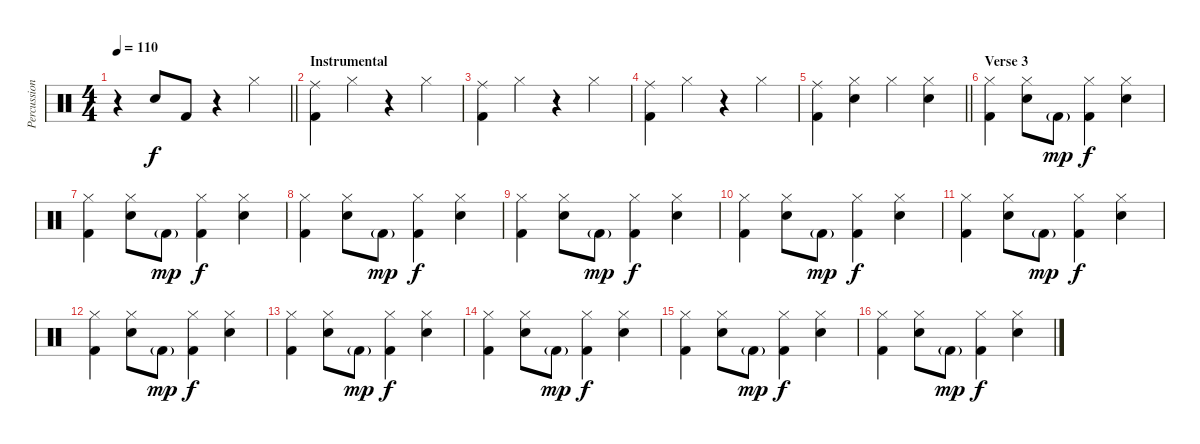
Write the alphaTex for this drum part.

\track ("Percussion" "Percussion") {instrument percussion}
\staff {score}
\articulation defaults
\ts (4 4)
\tempo 110
\clef neutral
\barLineRight lightlight
\ks c
r.4{dy f} "Snare (hit) 2".8 "Kick (hit) 2".8 r.4 "Hi-Hat (closed)".4 |
\section ("" "Instrumental")
("Ride (middle)" "Kick (hit) 2").4 "Hi-Hat (closed)".4 r.4 "Hi-Hat (closed)".4 |
("Ride (middle)" "Kick (hit) 2").4 "Hi-Hat (closed)".4 r.4 "Hi-Hat (closed)".4 |
("Ride (middle)" "Kick (hit) 2").4 "Hi-Hat (closed)".4 r.4 "Hi-Hat (closed)".4 |
\barLineRight lightlight
("Ride (middle)" "Kick (hit) 2").4 ("Hi-Hat (closed)" "Snare (hit) 2").4 "Hi-Hat (closed)".4 ("Hi-Hat (closed)" "Snare (hit) 2").4 |
\section ("" "Verse 3")
("Hi-Hat (closed)" "Kick (hit) 2").4 ("Hi-Hat (closed)" "Snare (hit) 2").8 "Kick (hit) 2"{g}.8{dy mp} ("Hi-Hat (closed)" "Kick (hit) 2").4{dy f} ("Hi-Hat (closed)" "Snare (hit) 2").4 |
("Hi-Hat (closed)" "Kick (hit) 2").4 ("Hi-Hat (closed)" "Snare (hit) 2").8 "Kick (hit) 2"{g}.8{dy mp} ("Hi-Hat (closed)" "Kick (hit) 2").4{dy f} ("Hi-Hat (closed)" "Snare (hit) 2").4 |
("Hi-Hat (closed)" "Kick (hit) 2").4 ("Hi-Hat (closed)" "Snare (hit) 2").8 "Kick (hit) 2"{g}.8{dy mp} ("Hi-Hat (closed)" "Kick (hit) 2").4{dy f} ("Hi-Hat (closed)" "Snare (hit) 2").4 |
("Hi-Hat (closed)" "Kick (hit) 2").4 ("Hi-Hat (closed)" "Snare (hit) 2").8 "Kick (hit) 2"{g}.8{dy mp} ("Hi-Hat (closed)" "Kick (hit) 2").4{dy f} ("Hi-Hat (closed)" "Snare (hit) 2").4 |
("Hi-Hat (closed)" "Kick (hit) 2").4 ("Hi-Hat (closed)" "Snare (hit) 2").8 "Kick (hit) 2"{g}.8{dy mp} ("Hi-Hat (closed)" "Kick (hit) 2").4{dy f} ("Hi-Hat (closed)" "Snare (hit) 2").4 |
("Hi-Hat (closed)" "Kick (hit) 2").4 ("Hi-Hat (closed)" "Snare (hit) 2").8 "Kick (hit) 2"{g}.8{dy mp} ("Hi-Hat (closed)" "Kick (hit) 2").4{dy f} ("Hi-Hat (closed)" "Snare (hit) 2").4 |
("Hi-Hat (closed)" "Kick (hit) 2").4 ("Hi-Hat (closed)" "Snare (hit) 2").8 "Kick (hit) 2"{g}.8{dy mp} ("Hi-Hat (closed)" "Kick (hit) 2").4{dy f} ("Hi-Hat (closed)" "Snare (hit) 2").4 |
("Hi-Hat (closed)" "Kick (hit) 2").4 ("Hi-Hat (closed)" "Snare (hit) 2").8 "Kick (hit) 2"{g}.8{dy mp} ("Hi-Hat (closed)" "Kick (hit) 2").4{dy f} ("Hi-Hat (closed)" "Snare (hit) 2").4 |
("Hi-Hat (closed)" "Kick (hit) 2").4 ("Hi-Hat (closed)" "Snare (hit) 2").8 "Kick (hit) 2"{g}.8{dy mp} ("Hi-Hat (closed)" "Kick (hit) 2").4{dy f} ("Hi-Hat (closed)" "Snare (hit) 2").4 |
("Hi-Hat (closed)" "Kick (hit) 2").4 ("Hi-Hat (closed)" "Snare (hit) 2").8 "Kick (hit) 2"{g}.8{dy mp} ("Hi-Hat (closed)" "Kick (hit) 2").4{dy f} ("Hi-Hat (closed)" "Snare (hit) 2").4 |
("Hi-Hat (closed)" "Kick (hit) 2").4 ("Hi-Hat (closed)" "Snare (hit) 2").8 "Kick (hit) 2"{g}.8{dy mp} ("Hi-Hat (closed)" "Kick (hit) 2").4{dy f} ("Hi-Hat (closed)" "Snare (hit) 2").4
